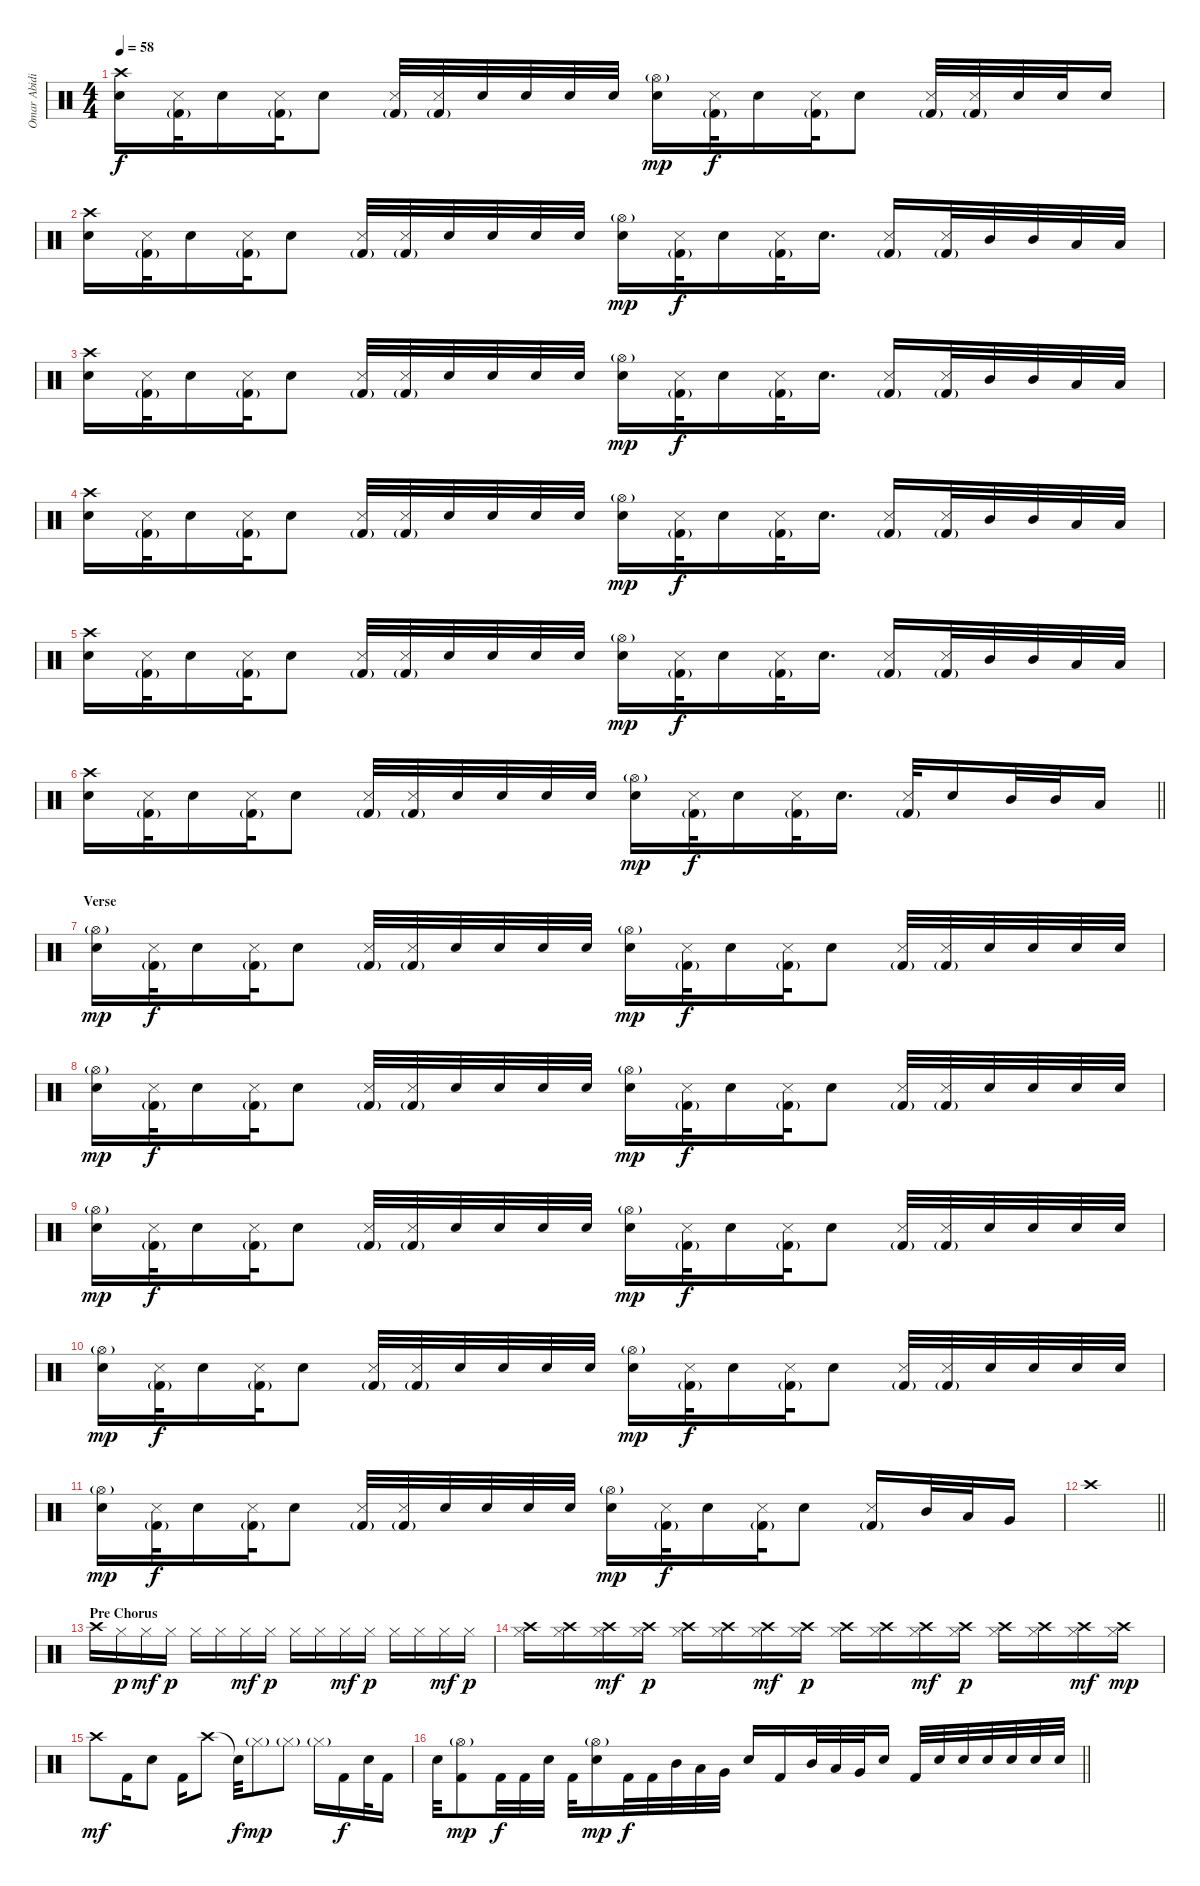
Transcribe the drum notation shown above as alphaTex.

\track ("Omar Abidi" "Omar Abidi") {instrument percussion}
\staff {score}
\articulation defaults
\ts (4 4)
\tempo 58
\clef neutral
\ks c
("Crash high (hit)" "Electric Snare (hit)").16{dy f} ("Metronome (hit)" "Kick (hit) 2"{g}).32 "Electric Snare (hit)".16 ("Metronome (hit)" "Kick (hit) 2"{g}).32 "Electric Snare (hit)".8 ("Metronome (hit)" "Kick (hit) 2"{g}).32 ("Metronome (hit)" "Kick (hit) 2"{g}).32 "Electric Snare (hit)".32 "Electric Snare (hit)".32 "Electric Snare (hit)".32 "Electric Snare (hit)".32 ("Hi-Hat (open)"{g} "Electric Snare (hit)").16{dy mp} ("Metronome (hit)" "Kick (hit) 2"{g}).32{dy f} "Electric Snare (hit)".16 ("Metronome (hit)" "Kick (hit) 2"{g}).32 "Electric Snare (hit)".8 ("Metronome (hit)" "Kick (hit) 2"{g}).32 ("Metronome (hit)" "Kick (hit) 2"{g}).32 "Electric Snare (hit)".32 "Electric Snare (hit)".32 "Electric Snare (hit)".16 |
("Crash high (hit)" "Electric Snare (hit)").16 ("Metronome (hit)" "Kick (hit) 2"{g}).32 "Electric Snare (hit)".16 ("Metronome (hit)" "Kick (hit) 2"{g}).32 "Electric Snare (hit)".8 ("Metronome (hit)" "Kick (hit) 2"{g}).32 ("Metronome (hit)" "Kick (hit) 2"{g}).32 "Electric Snare (hit)".32 "Electric Snare (hit)".32 "Electric Snare (hit)".32 "Electric Snare (hit)".32 ("Hi-Hat (open)"{g} "Electric Snare (hit)").16{dy mp} ("Metronome (hit)" "Kick (hit) 2"{g}).32{dy f} "Electric Snare (hit)".16 ("Metronome (hit)" "Kick (hit) 2"{g}).32 "Electric Snare (hit)".16{d} ("Metronome (hit)" "Kick (hit) 2"{g}).16 ("Metronome (hit)" "Kick (hit) 2"{g}).32 "Mid Tom (hit)".32 "Mid Tom (hit)".32 "Low Tom (hit)".32 "Low Tom (hit)".32 |
("Crash high (hit)" "Electric Snare (hit)").16 ("Metronome (hit)" "Kick (hit) 2"{g}).32 "Electric Snare (hit)".16 ("Metronome (hit)" "Kick (hit) 2"{g}).32 "Electric Snare (hit)".8 ("Metronome (hit)" "Kick (hit) 2"{g}).32 ("Metronome (hit)" "Kick (hit) 2"{g}).32 "Electric Snare (hit)".32 "Electric Snare (hit)".32 "Electric Snare (hit)".32 "Electric Snare (hit)".32 ("Hi-Hat (open)"{g} "Electric Snare (hit)").16{dy mp} ("Metronome (hit)" "Kick (hit) 2"{g}).32{dy f} "Electric Snare (hit)".16 ("Metronome (hit)" "Kick (hit) 2"{g}).32 "Electric Snare (hit)".16{d} ("Metronome (hit)" "Kick (hit) 2"{g}).16 ("Metronome (hit)" "Kick (hit) 2"{g}).32 "Mid Tom (hit)".32 "Mid Tom (hit)".32 "Low Tom (hit)".32 "Low Tom (hit)".32 |
("Crash high (hit)" "Electric Snare (hit)").16 ("Metronome (hit)" "Kick (hit) 2"{g}).32 "Electric Snare (hit)".16 ("Metronome (hit)" "Kick (hit) 2"{g}).32 "Electric Snare (hit)".8 ("Metronome (hit)" "Kick (hit) 2"{g}).32 ("Metronome (hit)" "Kick (hit) 2"{g}).32 "Electric Snare (hit)".32 "Electric Snare (hit)".32 "Electric Snare (hit)".32 "Electric Snare (hit)".32 ("Hi-Hat (open)"{g} "Electric Snare (hit)").16{dy mp} ("Metronome (hit)" "Kick (hit) 2"{g}).32{dy f} "Electric Snare (hit)".16 ("Metronome (hit)" "Kick (hit) 2"{g}).32 "Electric Snare (hit)".16{d} ("Metronome (hit)" "Kick (hit) 2"{g}).16 ("Metronome (hit)" "Kick (hit) 2"{g}).32 "Mid Tom (hit)".32 "Mid Tom (hit)".32 "Low Tom (hit)".32 "Low Tom (hit)".32 |
("Crash high (hit)" "Electric Snare (hit)").16 ("Metronome (hit)" "Kick (hit) 2"{g}).32 "Electric Snare (hit)".16 ("Metronome (hit)" "Kick (hit) 2"{g}).32 "Electric Snare (hit)".8 ("Metronome (hit)" "Kick (hit) 2"{g}).32 ("Metronome (hit)" "Kick (hit) 2"{g}).32 "Electric Snare (hit)".32 "Electric Snare (hit)".32 "Electric Snare (hit)".32 "Electric Snare (hit)".32 ("Hi-Hat (open)"{g} "Electric Snare (hit)").16{dy mp} ("Metronome (hit)" "Kick (hit) 2"{g}).32{dy f} "Electric Snare (hit)".16 ("Metronome (hit)" "Kick (hit) 2"{g}).32 "Electric Snare (hit)".16{d} ("Metronome (hit)" "Kick (hit) 2"{g}).16 ("Metronome (hit)" "Kick (hit) 2"{g}).32 "Mid Tom (hit)".32 "Mid Tom (hit)".32 "Low Tom (hit)".32 "Low Tom (hit)".32 |
\barLineRight lightlight
("Crash high (hit)" "Electric Snare (hit)").16 ("Metronome (hit)" "Kick (hit) 2"{g}).32 "Electric Snare (hit)".16 ("Metronome (hit)" "Kick (hit) 2"{g}).32 "Electric Snare (hit)".8 ("Metronome (hit)" "Kick (hit) 2"{g}).32 ("Metronome (hit)" "Kick (hit) 2"{g}).32 "Electric Snare (hit)".32 "Electric Snare (hit)".32 "Electric Snare (hit)".32 "Electric Snare (hit)".32 ("Hi-Hat (open)"{g} "Electric Snare (hit)").16{dy mp} ("Metronome (hit)" "Kick (hit) 2"{g}).32{dy f} "Electric Snare (hit)".16 ("Metronome (hit)" "Kick (hit) 2"{g}).32 "Electric Snare (hit)".16{d} ("Metronome (hit)" "Kick (hit) 2"{g}).32 "Electric Snare (hit)".16 "Mid Tom (hit)".32 "Mid Tom (hit)".32 "Low Tom (hit)".16 |
\section ("" "Verse")
("Hi-Hat (open)"{g} "Electric Snare (hit)").16{dy mp} ("Metronome (hit)" "Kick (hit) 2"{g}).32{dy f} "Electric Snare (hit)".16 ("Metronome (hit)" "Kick (hit) 2"{g}).32 "Electric Snare (hit)".8 ("Metronome (hit)" "Kick (hit) 2"{g}).32 ("Metronome (hit)" "Kick (hit) 2"{g}).32 "Electric Snare (hit)".32 "Electric Snare (hit)".32 "Electric Snare (hit)".32 "Electric Snare (hit)".32 ("Hi-Hat (open)"{g} "Electric Snare (hit)").16{dy mp} ("Metronome (hit)" "Kick (hit) 2"{g}).32{dy f} "Electric Snare (hit)".16 ("Metronome (hit)" "Kick (hit) 2"{g}).32 "Electric Snare (hit)".8 ("Metronome (hit)" "Kick (hit) 2"{g}).32 ("Metronome (hit)" "Kick (hit) 2"{g}).32 "Electric Snare (hit)".32 "Electric Snare (hit)".32 "Electric Snare (hit)".32 "Electric Snare (hit)".32 |
("Hi-Hat (open)"{g} "Electric Snare (hit)").16{dy mp} ("Metronome (hit)" "Kick (hit) 2"{g}).32{dy f} "Electric Snare (hit)".16 ("Metronome (hit)" "Kick (hit) 2"{g}).32 "Electric Snare (hit)".8 ("Metronome (hit)" "Kick (hit) 2"{g}).32 ("Metronome (hit)" "Kick (hit) 2"{g}).32 "Electric Snare (hit)".32 "Electric Snare (hit)".32 "Electric Snare (hit)".32 "Electric Snare (hit)".32 ("Hi-Hat (open)"{g} "Electric Snare (hit)").16{dy mp} ("Metronome (hit)" "Kick (hit) 2"{g}).32{dy f} "Electric Snare (hit)".16 ("Metronome (hit)" "Kick (hit) 2"{g}).32 "Electric Snare (hit)".8 ("Metronome (hit)" "Kick (hit) 2"{g}).32 ("Metronome (hit)" "Kick (hit) 2"{g}).32 "Electric Snare (hit)".32 "Electric Snare (hit)".32 "Electric Snare (hit)".32 "Electric Snare (hit)".32 |
("Hi-Hat (open)"{g} "Electric Snare (hit)").16{dy mp} ("Metronome (hit)" "Kick (hit) 2"{g}).32{dy f} "Electric Snare (hit)".16 ("Metronome (hit)" "Kick (hit) 2"{g}).32 "Electric Snare (hit)".8 ("Metronome (hit)" "Kick (hit) 2"{g}).32 ("Metronome (hit)" "Kick (hit) 2"{g}).32 "Electric Snare (hit)".32 "Electric Snare (hit)".32 "Electric Snare (hit)".32 "Electric Snare (hit)".32 ("Hi-Hat (open)"{g} "Electric Snare (hit)").16{dy mp} ("Metronome (hit)" "Kick (hit) 2"{g}).32{dy f} "Electric Snare (hit)".16 ("Metronome (hit)" "Kick (hit) 2"{g}).32 "Electric Snare (hit)".8 ("Metronome (hit)" "Kick (hit) 2"{g}).32 ("Metronome (hit)" "Kick (hit) 2"{g}).32 "Electric Snare (hit)".32 "Electric Snare (hit)".32 "Electric Snare (hit)".32 "Electric Snare (hit)".32 |
("Hi-Hat (open)"{g} "Electric Snare (hit)").16{dy mp} ("Metronome (hit)" "Kick (hit) 2"{g}).32{dy f} "Electric Snare (hit)".16 ("Metronome (hit)" "Kick (hit) 2"{g}).32 "Electric Snare (hit)".8 ("Metronome (hit)" "Kick (hit) 2"{g}).32 ("Metronome (hit)" "Kick (hit) 2"{g}).32 "Electric Snare (hit)".32 "Electric Snare (hit)".32 "Electric Snare (hit)".32 "Electric Snare (hit)".32 ("Hi-Hat (open)"{g} "Electric Snare (hit)").16{dy mp} ("Metronome (hit)" "Kick (hit) 2"{g}).32{dy f} "Electric Snare (hit)".16 ("Metronome (hit)" "Kick (hit) 2"{g}).32 "Electric Snare (hit)".8 ("Metronome (hit)" "Kick (hit) 2"{g}).32 ("Metronome (hit)" "Kick (hit) 2"{g}).32 "Electric Snare (hit)".32 "Electric Snare (hit)".32 "Electric Snare (hit)".32 "Electric Snare (hit)".32 |
("Hi-Hat (open)"{g} "Electric Snare (hit)").16{dy mp} ("Metronome (hit)" "Kick (hit) 2"{g}).32{dy f} "Electric Snare (hit)".16 ("Metronome (hit)" "Kick (hit) 2"{g}).32 "Electric Snare (hit)".8 ("Metronome (hit)" "Kick (hit) 2"{g}).32 ("Metronome (hit)" "Kick (hit) 2"{g}).32 "Electric Snare (hit)".32 "Electric Snare (hit)".32 "Electric Snare (hit)".32 "Electric Snare (hit)".32 ("Hi-Hat (open)"{g} "Electric Snare (hit)").16{dy mp} ("Metronome (hit)" "Kick (hit) 2"{g}).32{dy f} "Electric Snare (hit)".16 ("Metronome (hit)" "Kick (hit) 2"{g}).32 "Electric Snare (hit)".8 ("Metronome (hit)" "Kick (hit) 2"{g}).16 "Mid Tom (hit)".32 "Low Tom (hit)".32 "Very Low Tom (hit)".16 |
\barLineRight lightlight "Crash high (hit)".1
|
\section ("" "Pre Chorus")
"Crash high (hit)".16 "Hi-Hat (closed)".16{dy p} "Hi-Hat (closed)".16{dy mf} "Hi-Hat (closed)".16{dy p} "Hi-Hat (closed)".16 "Hi-Hat (closed)".16 "Hi-Hat (closed)".16{dy mf} "Hi-Hat (closed)".16{dy p} "Hi-Hat (closed)".16 "Hi-Hat (closed)".16 "Hi-Hat (closed)".16{dy mf} "Hi-Hat (closed)".16{dy p} "Hi-Hat (closed)".16 "Hi-Hat (closed)".16 "Hi-Hat (closed)".16{dy mf} "Hi-Hat (closed)".16{dy p} |
("Crash high (hit)" "Hi-Hat (closed)").16 ("Crash high (hit)" "Hi-Hat (closed)").16 ("Crash high (hit)" "Hi-Hat (closed)").16{dy mf} ("Crash high (hit)" "Hi-Hat (closed)").16{dy p} ("Crash high (hit)" "Hi-Hat (closed)").16 ("Crash high (hit)" "Hi-Hat (closed)").16 ("Crash high (hit)" "Hi-Hat (closed)").16{dy mf} ("Crash high (hit)" "Hi-Hat (closed)").16{dy p} ("Crash high (hit)" "Hi-Hat (closed)").16 ("Crash high (hit)" "Hi-Hat (closed)").16 ("Crash high (hit)" "Hi-Hat (closed)").16{dy mf} ("Crash high (hit)" "Hi-Hat (closed)").16{dy p} ("Crash high (hit)" "Hi-Hat (closed)").16 ("Crash high (hit)" "Hi-Hat (closed)").16 ("Crash high (hit)" "Hi-Hat (closed)").16{dy mf} ("Crash high (hit)" "Hi-Hat (closed)").16{dy mp} |
"Crash high (hit)".8{dy mf} "Kick (hit) 2".16 "Electric Snare (hit)".8 "Kick (hit) 2".16 "Crash high (hit)".8 "Snare (hit)"{t}.32{dy f} "Hi-Hat (closed)"{g}.8{dy mp} "Hi-Hat (closed)"{g}.8 "Hi-Hat (closed)"{g}.16 "Kick (hit) 2".16{dy f} "Electric Snare (hit)".32 "Kick (hit) 2".16 |
\barLineRight lightlight "Electric Snare (hit)".32
("Hi-Hat (open)"{g} "Kick (hit) 2").8{dy mp} "Kick (hit) 2".32{dy f} "Kick (hit) 2".32 "Electric Snare (hit)".32 "Kick (hit) 2".32 ("Hi-Hat (open)"{g} "Electric Snare (hit)").16{dy mp} "Kick (hit) 2".32{dy f} "Kick (hit) 2".32 "Mid Tom (hit)".32 "Low Tom (hit)".32 "Very Low Tom (hit)".32 "Electric Snare (hit)".16 "Kick (hit) 2".16 "Mid Tom (hit)".32 "Low Tom (hit)".32 "Very Low Tom (hit)".32 "Electric Snare (hit)".16 "Kick (hit) 2".32 "Electric Snare (hit)".32 "Electric Snare (hit)".32 "Electric Snare (hit)".32 "Electric Snare (hit)".32 "Electric Snare (hit)".32 "Electric Snare (hit)".32
